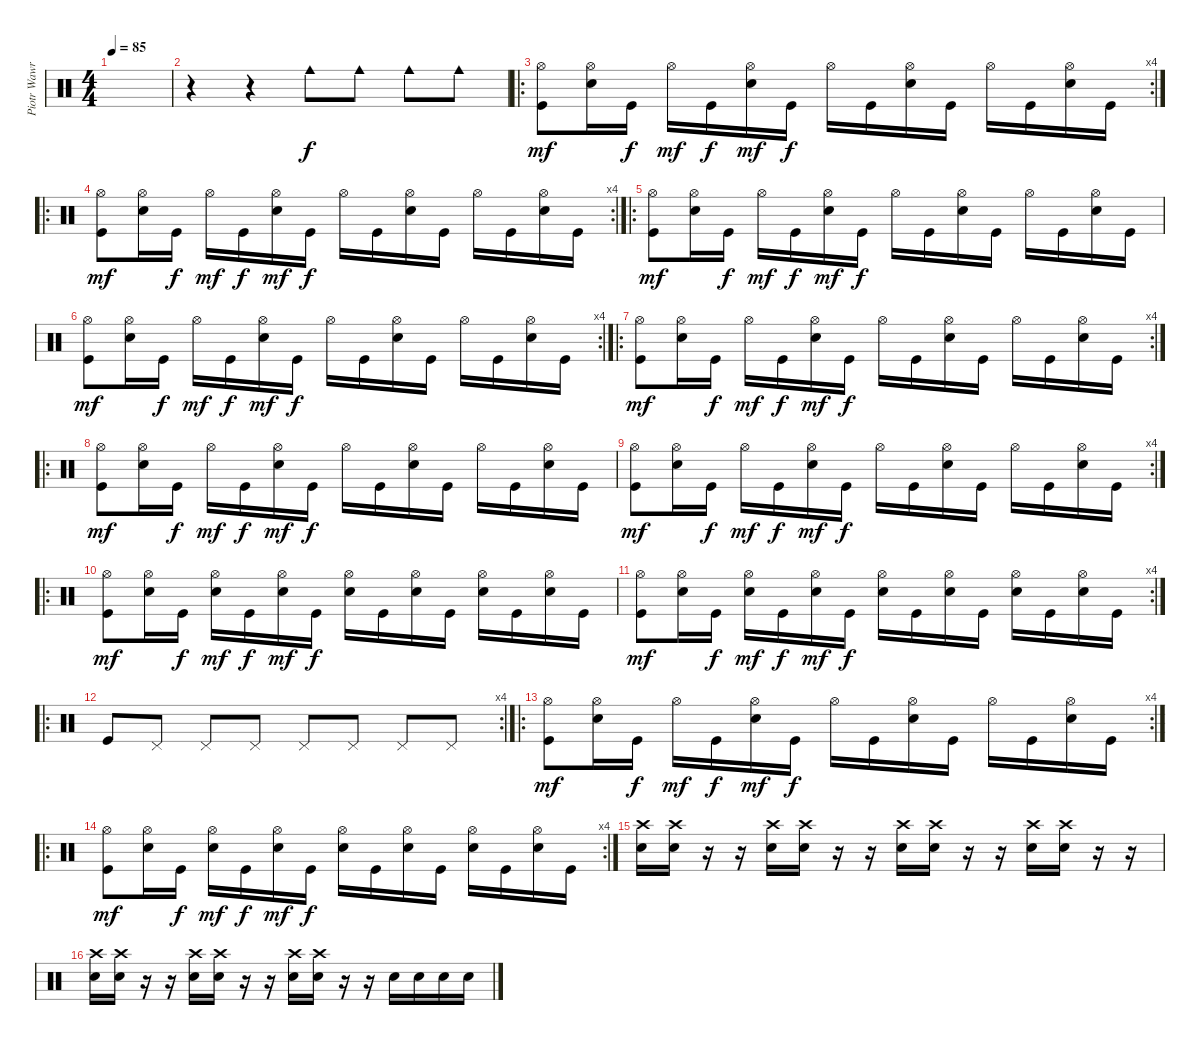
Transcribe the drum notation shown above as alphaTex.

\track ("Piotr Wawrzeniuk (Drums)" "Piotr Wawr") {instrument percussion}
\staff {score}
\articulation defaults
\ts (4 4)
\tempo 85
\clef neutral
\ks c
|
r.4 r.4 "Cowbell medium (hit)".8 "Cowbell medium (hit)".8 "Cowbell medium (hit)".8 "Cowbell medium (hit)".8 |
\ro
\rc 4
("Kick (hit)" "Hi-Hat (open)").8{dy mf} ("Electric Snare (hit)" "Hi-Hat (open)").16 "Kick (hit)".16{dy f} "Hi-Hat (open)".16{dy mf} "Kick (hit)".16{dy f} ("Electric Snare (hit)" "Hi-Hat (open)").16{dy mf} "Kick (hit)".16{dy f} "Hi-Hat (open)".16 "Kick (hit)".16 ("Electric Snare (hit)" "Hi-Hat (open)").16 "Kick (hit)".16 "Hi-Hat (open)".16 "Kick (hit)".16 ("Electric Snare (hit)" "Hi-Hat (open)").16 "Kick (hit)".16 |
\ro
\rc 4
("Kick (hit)" "Hi-Hat (open)").8{dy mf} ("Electric Snare (hit)" "Hi-Hat (open)").16 "Kick (hit)".16{dy f} "Hi-Hat (open)".16{dy mf} "Kick (hit)".16{dy f} ("Electric Snare (hit)" "Hi-Hat (open)").16{dy mf} "Kick (hit)".16{dy f} "Hi-Hat (open)".16 "Kick (hit)".16 ("Electric Snare (hit)" "Hi-Hat (open)").16 "Kick (hit)".16 "Hi-Hat (open)".16 "Kick (hit)".16 ("Electric Snare (hit)" "Hi-Hat (open)").16 "Kick (hit)".16 |
\ro
("Kick (hit)" "Hi-Hat (open)").8{dy mf} ("Electric Snare (hit)" "Hi-Hat (open)").16 "Kick (hit)".16{dy f} "Hi-Hat (open)".16{dy mf} "Kick (hit)".16{dy f} ("Electric Snare (hit)" "Hi-Hat (open)").16{dy mf} "Kick (hit)".16{dy f} "Hi-Hat (open)".16 "Kick (hit)".16 ("Electric Snare (hit)" "Hi-Hat (open)").16 "Kick (hit)".16 "Hi-Hat (open)".16 "Kick (hit)".16 ("Electric Snare (hit)" "Hi-Hat (open)").16 "Kick (hit)".16 |
\rc 4
("Kick (hit)" "Hi-Hat (open)").8{dy mf} ("Electric Snare (hit)" "Hi-Hat (open)").16 "Kick (hit)".16{dy f} "Hi-Hat (open)".16{dy mf} "Kick (hit)".16{dy f} ("Electric Snare (hit)" "Hi-Hat (open)").16{dy mf} "Kick (hit)".16{dy f} "Hi-Hat (open)".16 "Kick (hit)".16 ("Electric Snare (hit)" "Hi-Hat (open)").16 "Kick (hit)".16 "Hi-Hat (open)".16 "Kick (hit)".16 ("Electric Snare (hit)" "Hi-Hat (open)").16 "Kick (hit)".16 |
\ro
\rc 4
("Kick (hit)" "Hi-Hat (open)").8{dy mf} ("Electric Snare (hit)" "Hi-Hat (open)").16 "Kick (hit)".16{dy f} "Hi-Hat (open)".16{dy mf} "Kick (hit)".16{dy f} ("Electric Snare (hit)" "Hi-Hat (open)").16{dy mf} "Kick (hit)".16{dy f} "Hi-Hat (open)".16 "Kick (hit)".16 ("Electric Snare (hit)" "Hi-Hat (open)").16 "Kick (hit)".16 "Hi-Hat (open)".16 "Kick (hit)".16 ("Electric Snare (hit)" "Hi-Hat (open)").16 "Kick (hit)".16 |
\ro
("Kick (hit)" "Hi-Hat (open)").8{dy mf} ("Electric Snare (hit)" "Hi-Hat (open)").16 "Kick (hit)".16{dy f} "Hi-Hat (open)".16{dy mf} "Kick (hit)".16{dy f} ("Electric Snare (hit)" "Hi-Hat (open)").16{dy mf} "Kick (hit)".16{dy f} "Hi-Hat (open)".16 "Kick (hit)".16 ("Electric Snare (hit)" "Hi-Hat (open)").16 "Kick (hit)".16 "Hi-Hat (open)".16 "Kick (hit)".16 ("Electric Snare (hit)" "Hi-Hat (open)").16 "Kick (hit)".16 |
\rc 4
("Kick (hit)" "Hi-Hat (open)").8{dy mf} ("Electric Snare (hit)" "Hi-Hat (open)").16 "Kick (hit)".16{dy f} "Hi-Hat (open)".16{dy mf} "Kick (hit)".16{dy f} ("Electric Snare (hit)" "Hi-Hat (open)").16{dy mf} "Kick (hit)".16{dy f} "Hi-Hat (open)".16 "Kick (hit)".16 ("Electric Snare (hit)" "Hi-Hat (open)").16 "Kick (hit)".16 "Hi-Hat (open)".16 "Kick (hit)".16 ("Electric Snare (hit)" "Hi-Hat (open)").16 "Kick (hit)".16 |
\ro
("Kick (hit)" "Hi-Hat (open)").8{dy mf} ("Electric Snare (hit)" "Hi-Hat (open)").16 "Kick (hit)".16{dy f} ("Electric Snare (hit)" "Hi-Hat (open)").16{dy mf} "Kick (hit)".16{dy f} ("Electric Snare (hit)" "Hi-Hat (open)").16{dy mf} "Kick (hit)".16{dy f} ("Electric Snare (hit)" "Hi-Hat (open)").16 "Kick (hit)".16 ("Electric Snare (hit)" "Hi-Hat (open)").16 "Kick (hit)".16 ("Electric Snare (hit)" "Hi-Hat (open)").16 "Kick (hit)".16 ("Electric Snare (hit)" "Hi-Hat (open)").16 "Kick (hit)".16 |
\rc 4
("Kick (hit)" "Hi-Hat (open)").8{dy mf} ("Electric Snare (hit)" "Hi-Hat (open)").16 "Kick (hit)".16{dy f} ("Electric Snare (hit)" "Hi-Hat (open)").16{dy mf} "Kick (hit)".16{dy f} ("Electric Snare (hit)" "Hi-Hat (open)").16{dy mf} "Kick (hit)".16{dy f} ("Electric Snare (hit)" "Hi-Hat (open)").16 "Kick (hit)".16 ("Electric Snare (hit)" "Hi-Hat (open)").16 "Kick (hit)".16 ("Electric Snare (hit)" "Hi-Hat (open)").16 "Kick (hit)".16 ("Electric Snare (hit)" "Hi-Hat (open)").16 "Kick (hit)".16 |
\ro
\rc 4 "Kick (hit)".8 "Pedal Hi-Hat (hit)".8 "Pedal Hi-Hat (hit)".8 "Pedal Hi-Hat (hit)".8 "Pedal Hi-Hat (hit)".8 "Pedal Hi-Hat (hit)".8 "Pedal Hi-Hat (hit)".8 "Pedal Hi-Hat (hit)".8
|
\ro
\rc 4
("Kick (hit)" "Hi-Hat (open)").8{dy mf} ("Electric Snare (hit)" "Hi-Hat (open)").16 "Kick (hit)".16{dy f} "Hi-Hat (open)".16{dy mf} "Kick (hit)".16{dy f} ("Electric Snare (hit)" "Hi-Hat (open)").16{dy mf} "Kick (hit)".16{dy f} "Hi-Hat (open)".16 "Kick (hit)".16 ("Electric Snare (hit)" "Hi-Hat (open)").16 "Kick (hit)".16 "Hi-Hat (open)".16 "Kick (hit)".16 ("Electric Snare (hit)" "Hi-Hat (open)").16 "Kick (hit)".16 |
\ro
\rc 4
("Kick (hit)" "Hi-Hat (open)").8{dy mf} ("Electric Snare (hit)" "Hi-Hat (open)").16 "Kick (hit)".16{dy f} ("Electric Snare (hit)" "Hi-Hat (open)").16{dy mf} "Kick (hit)".16{dy f} ("Electric Snare (hit)" "Hi-Hat (open)").16{dy mf} "Kick (hit)".16{dy f} ("Electric Snare (hit)" "Hi-Hat (open)").16 "Kick (hit)".16 ("Electric Snare (hit)" "Hi-Hat (open)").16 "Kick (hit)".16 ("Electric Snare (hit)" "Hi-Hat (open)").16 "Kick (hit)".16 ("Electric Snare (hit)" "Hi-Hat (open)").16 "Kick (hit)".16 |
("Crash high (hit)" "Electric Snare (hit)").16 ("Crash high (hit)" "Electric Snare (hit)").16 r.16 r.16 ("Crash high (hit)" "Electric Snare (hit)").16 ("Crash high (hit)" "Electric Snare (hit)").16 r.16 r.16 ("Crash high (hit)" "Electric Snare (hit)").16 ("Crash high (hit)" "Electric Snare (hit)").16 r.16 r.16 ("Crash high (hit)" "Electric Snare (hit)").16 ("Crash high (hit)" "Electric Snare (hit)").16 r.16 r.16 |
("Crash high (hit)" "Electric Snare (hit)").16 ("Crash high (hit)" "Electric Snare (hit)").16 r.16 r.16 ("Crash high (hit)" "Electric Snare (hit)").16 ("Crash high (hit)" "Electric Snare (hit)").16 r.16 r.16 ("Crash high (hit)" "Electric Snare (hit)").16 ("Crash high (hit)" "Electric Snare (hit)").16 r.16 r.16 "Electric Snare (hit)".16 "Electric Snare (hit)".16 "Electric Snare (hit)".16 "Electric Snare (hit)".16
